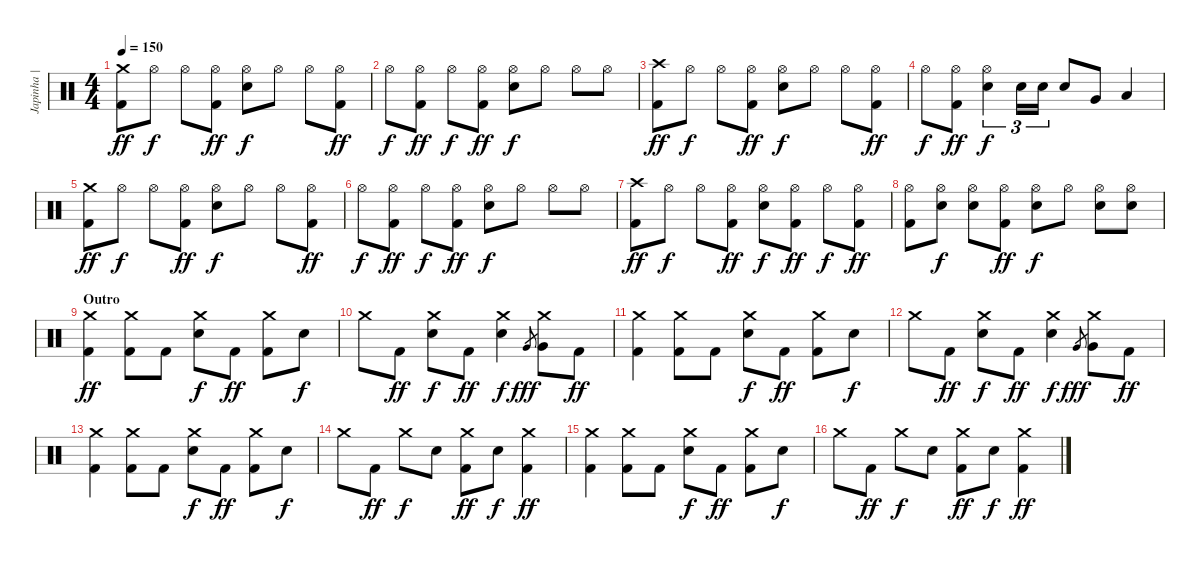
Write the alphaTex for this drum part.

\track ("Japinha | Bateria" "Japinha | ") {instrument percussion}
\staff {score}
\articulation defaults
\ts (4 4)
\tempo 150
\clef neutral
\ks c
("Crash medium (hit)" "Kick (hit) 2").8{dy ff} "Hi-Hat (open)".8{dy f} "Hi-Hat (open)".8 ("Hi-Hat (open)" "Kick (hit) 2").8{dy ff} ("Hi-Hat (open)" "Electric Snare (hit)").8{dy f} "Hi-Hat (open)".8 "Hi-Hat (open)".8 ("Hi-Hat (open)" "Kick (hit) 2").8{dy ff} |
"Hi-Hat (open)".8{dy f} ("Hi-Hat (open)" "Kick (hit) 2").8{dy ff} "Hi-Hat (open)".8{dy f} ("Hi-Hat (open)" "Kick (hit) 2").8{dy ff} ("Hi-Hat (open)" "Electric Snare (hit)").8{dy f} "Hi-Hat (open)".8 "Hi-Hat (open)".8 "Hi-Hat (open)".8 |
("Crash high (hit)" "Kick (hit) 2").8{dy ff} "Hi-Hat (open)".8{dy f} "Hi-Hat (open)".8 ("Hi-Hat (open)" "Kick (hit) 2").8{dy ff} ("Hi-Hat (open)" "Electric Snare (hit)").8{dy f} "Hi-Hat (open)".8 "Hi-Hat (open)".8 ("Hi-Hat (open)" "Kick (hit) 2").8{dy ff} |
"Hi-Hat (open)".8{dy f} ("Hi-Hat (open)" "Kick (hit) 2").8{dy ff} ("Hi-Hat (open)" "Electric Snare (hit)").4{tu (3 2) dy f} "Electric Snare (hit)".16{tu (3 2)} "Electric Snare (hit)".16{tu (3 2)} "Electric Snare (hit)".8 "Very Low Tom (hit)".8 "Low Tom (hit)".4 |
("Crash medium (hit)" "Kick (hit) 2").8{dy ff} "Hi-Hat (open)".8{dy f} "Hi-Hat (open)".8 ("Hi-Hat (open)" "Kick (hit) 2").8{dy ff} ("Hi-Hat (open)" "Electric Snare (hit)").8{dy f} "Hi-Hat (open)".8 "Hi-Hat (open)".8 ("Hi-Hat (open)" "Kick (hit) 2").8{dy ff} |
"Hi-Hat (open)".8{dy f} ("Hi-Hat (open)" "Kick (hit) 2").8{dy ff} "Hi-Hat (open)".8{dy f} ("Hi-Hat (open)" "Kick (hit) 2").8{dy ff} ("Hi-Hat (open)" "Electric Snare (hit)").8{dy f} "Hi-Hat (open)".8 "Hi-Hat (open)".8 "Hi-Hat (open)".8 |
("Crash high (hit)" "Kick (hit) 2").8{dy ff} "Hi-Hat (open)".8{dy f} "Hi-Hat (open)".8 ("Hi-Hat (open)" "Kick (hit) 2").8{dy ff} ("Hi-Hat (open)" "Electric Snare (hit)").8{dy f} ("Hi-Hat (open)" "Kick (hit) 2").8{dy ff} "Hi-Hat (open)".8{dy f} ("Hi-Hat (open)" "Kick (hit) 2").8{dy ff} |
("Hi-Hat (open)" "Kick (hit) 2").8 ("Hi-Hat (open)" "Electric Snare (hit)").8{dy f} ("Hi-Hat (open)" "Electric Snare (hit)").8 ("Hi-Hat (open)" "Kick (hit) 2").8{dy ff} ("Hi-Hat (open)" "Electric Snare (hit)").8{dy f} "Hi-Hat (open)".8 ("Hi-Hat (open)" "Electric Snare (hit)").8 ("Hi-Hat (open)" "Electric Snare (hit)").8 |
\section ("" "Outro")
("Crash medium (hit)" "Kick (hit) 2").4{dy ff} ("Crash medium (hit)" "Kick (hit) 2").8 "Kick (hit) 2".8 ("Crash medium (hit)" "Electric Snare (hit)").8{dy f} "Kick (hit) 2".8{dy ff} ("Crash medium (hit)" "Kick (hit) 2").8 "Electric Snare (hit)".8{dy f} |
"Crash medium (hit)".8 "Kick (hit) 2".8{dy ff} ("Crash medium (hit)" "Electric Snare (hit)").8{dy f} "Kick (hit) 2".8{dy ff} ("Crash medium (hit)" "Electric Snare (hit)").4{dy f} "Very Low Tom (hit)".8{gr dy fff} ("Crash medium (hit)" "Very Low Tom (hit)").8 "Kick (hit) 2".8{dy ff} |
("Crash medium (hit)" "Kick (hit) 2").4 ("Crash medium (hit)" "Kick (hit) 2").8 "Kick (hit) 2".8 ("Crash medium (hit)" "Electric Snare (hit)").8{dy f} "Kick (hit) 2".8{dy ff} ("Crash medium (hit)" "Kick (hit) 2").8 "Electric Snare (hit)".8{dy f} |
"Crash medium (hit)".8 "Kick (hit) 2".8{dy ff} ("Crash medium (hit)" "Electric Snare (hit)").8{dy f} "Kick (hit) 2".8{dy ff} ("Crash medium (hit)" "Electric Snare (hit)").4{dy f} "Very Low Tom (hit)".8{gr dy fff} ("Crash medium (hit)" "Very Low Tom (hit)").8 "Kick (hit) 2".8{dy ff} |
("Crash medium (hit)" "Kick (hit) 2").4 ("Crash medium (hit)" "Kick (hit) 2").8 "Kick (hit) 2".8 ("Crash medium (hit)" "Electric Snare (hit)").8{dy f} "Kick (hit) 2".8{dy ff} ("Crash medium (hit)" "Kick (hit) 2").8 "Electric Snare (hit)".8{dy f} |
"Crash medium (hit)".8 "Kick (hit) 2".8{dy ff} "Crash medium (hit)".8{dy f} "Electric Snare (hit)".8 ("Crash medium (hit)" "Kick (hit) 2").8{dy ff} "Electric Snare (hit)".8{dy f} ("Crash medium (hit)" "Kick (hit) 2").4{dy ff} |
("Crash medium (hit)" "Kick (hit) 2").4 ("Crash medium (hit)" "Kick (hit) 2").8 "Kick (hit) 2".8 ("Crash medium (hit)" "Electric Snare (hit)").8{dy f} "Kick (hit) 2".8{dy ff} ("Crash medium (hit)" "Kick (hit) 2").8 "Electric Snare (hit)".8{dy f} |
"Crash medium (hit)".8 "Kick (hit) 2".8{dy ff} "Crash medium (hit)".8{dy f} "Electric Snare (hit)".8 ("Crash medium (hit)" "Kick (hit) 2").8{dy ff} "Electric Snare (hit)".8{dy f} ("Crash medium (hit)" "Kick (hit) 2").4{dy ff}
